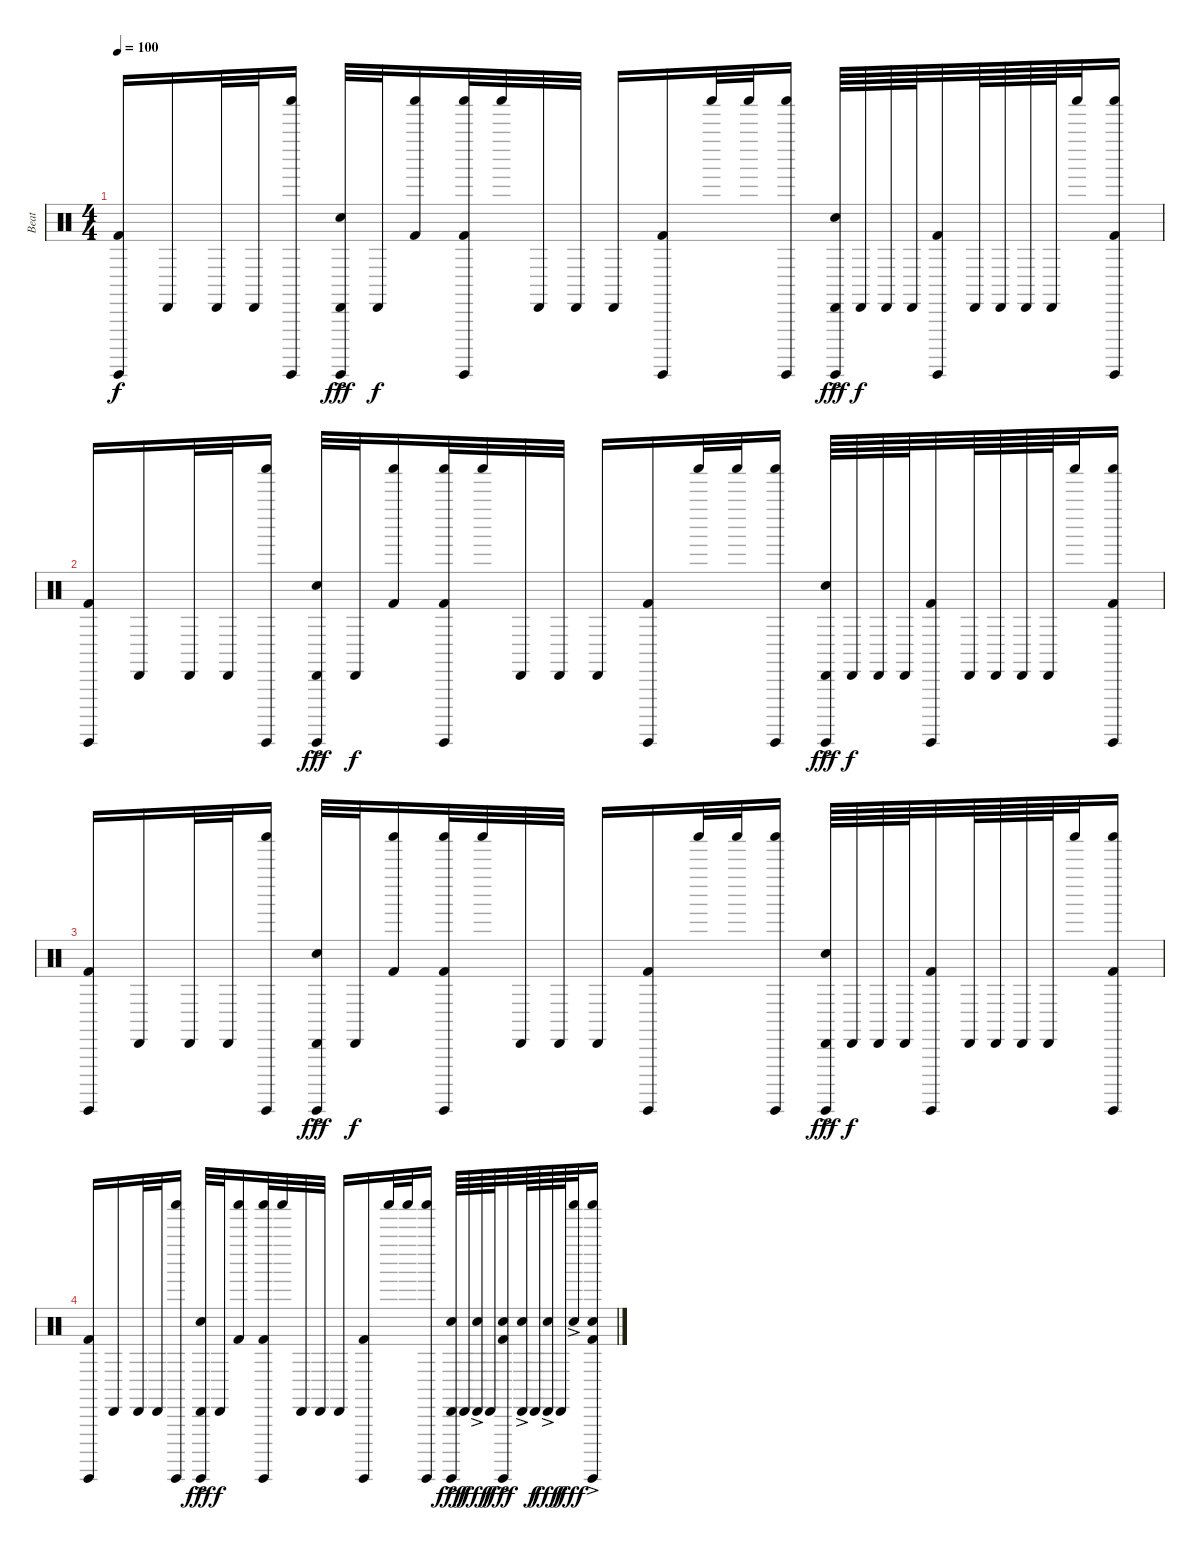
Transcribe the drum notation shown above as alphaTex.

\track ("Beat" "Beat") {instrument percussion}
\staff {score}
\articulation defaults
\ts (4 4)
\tempo 100
\clef neutral
\ks c
("Guiro (hit)" "Kick (hit) 2").16{dy f} "Cabasa (hit)".16 "Cabasa (hit)".32 "Cabasa (hit)".32 ("Guiro (hit)" "Shaker (hit)").16 ("Guiro (hit)" "Cabasa (hit)" "Snare (hit) 2"{ac}).32{dy fff} "Cabasa (hit)".32{dy f} ("Shaker (hit)" "Kick (hit) 2").16 ("Guiro (hit)" "Shaker (hit)" "Kick (hit) 2").32 "Shaker (hit)".32 "Cabasa (hit)".32 "Cabasa (hit)".32 "Cabasa (hit)".16 ("Guiro (hit)" "Kick (hit) 2").16 "Shaker (hit)".32 "Shaker (hit)".32 ("Guiro (hit)" "Shaker (hit)").16 ("Guiro (hit)" "Cabasa (hit)" "Snare (hit) 2"{ac}).64{dy fff} "Cabasa (hit)".64{dy f} "Cabasa (hit)".64 "Cabasa (hit)".64 ("Guiro (hit)" "Kick (hit) 2").32 "Cabasa (hit)".64 "Cabasa (hit)".64 "Cabasa (hit)".64 "Cabasa (hit)".64 "Shaker (hit)".32 ("Guiro (hit)" "Shaker (hit)" "Kick (hit) 2").16 |
("Guiro (hit)" "Kick (hit) 2").16 "Cabasa (hit)".16 "Cabasa (hit)".32 "Cabasa (hit)".32 ("Guiro (hit)" "Shaker (hit)").16 ("Guiro (hit)" "Cabasa (hit)" "Snare (hit) 2"{ac}).32{dy fff} "Cabasa (hit)".32{dy f} ("Shaker (hit)" "Kick (hit) 2").16 ("Guiro (hit)" "Shaker (hit)" "Kick (hit) 2").32 "Shaker (hit)".32 "Cabasa (hit)".32 "Cabasa (hit)".32 "Cabasa (hit)".16 ("Guiro (hit)" "Kick (hit) 2").16 "Shaker (hit)".32 "Shaker (hit)".32 ("Guiro (hit)" "Shaker (hit)").16 ("Guiro (hit)" "Cabasa (hit)" "Snare (hit) 2"{ac}).64{dy fff} "Cabasa (hit)".64{dy f} "Cabasa (hit)".64 "Cabasa (hit)".64 ("Guiro (hit)" "Kick (hit) 2").32 "Cabasa (hit)".64 "Cabasa (hit)".64 "Cabasa (hit)".64 "Cabasa (hit)".64 "Shaker (hit)".32 ("Guiro (hit)" "Shaker (hit)" "Kick (hit) 2").16 |
("Guiro (hit)" "Kick (hit) 2").16 "Cabasa (hit)".16 "Cabasa (hit)".32 "Cabasa (hit)".32 ("Guiro (hit)" "Shaker (hit)").16 ("Guiro (hit)" "Cabasa (hit)" "Snare (hit) 2"{ac}).32{dy fff} "Cabasa (hit)".32{dy f} ("Shaker (hit)" "Kick (hit) 2").16 ("Guiro (hit)" "Shaker (hit)" "Kick (hit) 2").32 "Shaker (hit)".32 "Cabasa (hit)".32 "Cabasa (hit)".32 "Cabasa (hit)".16 ("Guiro (hit)" "Kick (hit) 2").16 "Shaker (hit)".32 "Shaker (hit)".32 ("Guiro (hit)" "Shaker (hit)").16 ("Guiro (hit)" "Cabasa (hit)" "Snare (hit) 2"{ac}).64{dy fff} "Cabasa (hit)".64{dy f} "Cabasa (hit)".64 "Cabasa (hit)".64 ("Guiro (hit)" "Kick (hit) 2").32 "Cabasa (hit)".64 "Cabasa (hit)".64 "Cabasa (hit)".64 "Cabasa (hit)".64 "Shaker (hit)".32 ("Guiro (hit)" "Shaker (hit)" "Kick (hit) 2").16 |
("Guiro (hit)" "Kick (hit) 2").16 "Cabasa (hit)".16 "Cabasa (hit)".32 "Cabasa (hit)".32 ("Guiro (hit)" "Shaker (hit)").16 ("Guiro (hit)" "Cabasa (hit)" "Snare (hit) 2"{ac}).32{dy fff} "Cabasa (hit)".32{dy f} ("Shaker (hit)" "Kick (hit) 2").16 ("Guiro (hit)" "Shaker (hit)" "Kick (hit) 2").32 "Shaker (hit)".32 "Cabasa (hit)".32 "Cabasa (hit)".32 "Cabasa (hit)".16 ("Guiro (hit)" "Kick (hit) 2").16 "Shaker (hit)".32 "Shaker (hit)".32 ("Guiro (hit)" "Shaker (hit)").16 ("Guiro (hit)" "Cabasa (hit)" "Snare (hit) 2"{ac}).64{dy fff} "Cabasa (hit)".64{dy f} ("Cabasa (hit)" "Snare (hit) 2"{ac}).64{dy fff} "Cabasa (hit)".64{dy f} ("Guiro (hit)" "Snare (hit) 2"{ac} "Kick (hit) 2").32{dy fff} ("Cabasa (hit)" "Snare (hit) 2"{ac}).64 "Cabasa (hit)".64{dy f} ("Cabasa (hit)" "Snare (hit) 2"{ac}).64{dy fff} "Cabasa (hit)".64{dy f} ("Shaker (hit)" "Snare (hit) 2"{ac}).32{dy fff} ("Guiro (hit)" "Shaker (hit)" "Snare (hit) 2"{ac} "Kick (hit) 2").16
